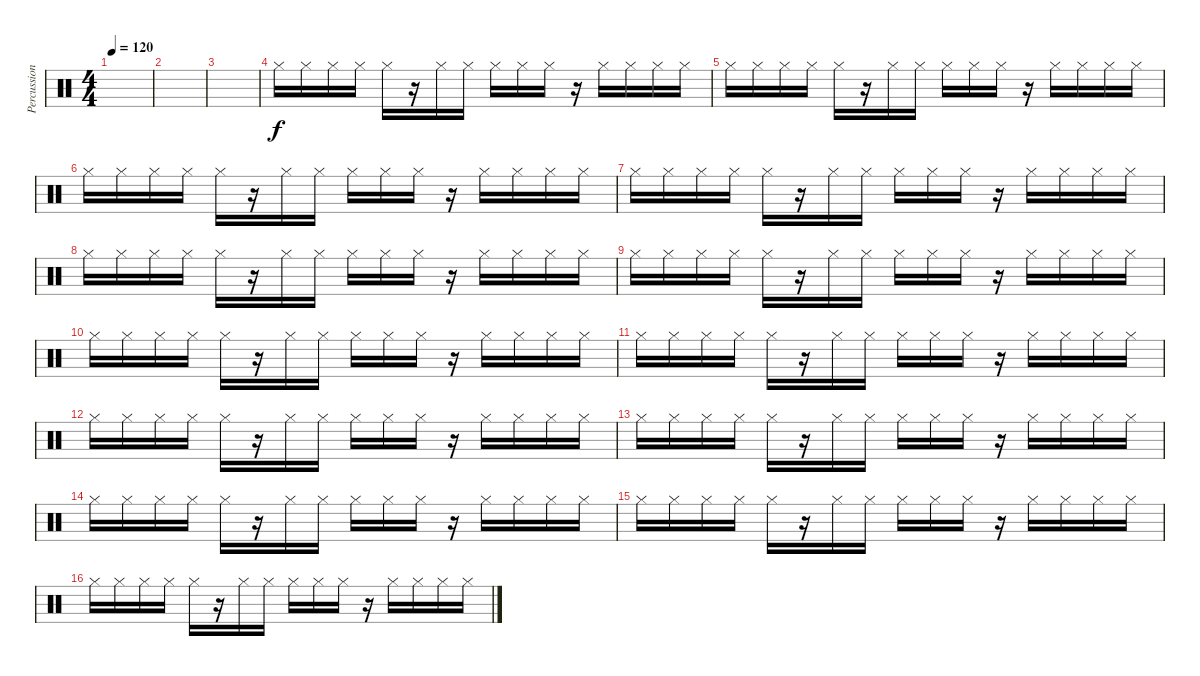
\track ("Percussions" "Percussion") {instrument percussion}
\staff {score}
\articulation defaults
\ts (4 4)
\tempo 120
\clef neutral
\ks c
|
|
|
"Hi-Hat (closed)".16 "Hi-Hat (closed)".16 "Hi-Hat (closed)".16 "Hi-Hat (closed)".16 "Hi-Hat (closed)".16 r.16 "Hi-Hat (closed)".16 "Hi-Hat (closed)".16 "Hi-Hat (closed)".16 "Hi-Hat (closed)".16 "Hi-Hat (closed)".16 r.16 "Hi-Hat (closed)".16 "Hi-Hat (closed)".16 "Hi-Hat (closed)".16 "Hi-Hat (closed)".16 |
"Hi-Hat (closed)".16 "Hi-Hat (closed)".16 "Hi-Hat (closed)".16 "Hi-Hat (closed)".16 "Hi-Hat (closed)".16 r.16 "Hi-Hat (closed)".16 "Hi-Hat (closed)".16 "Hi-Hat (closed)".16 "Hi-Hat (closed)".16 "Hi-Hat (closed)".16 r.16 "Hi-Hat (closed)".16 "Hi-Hat (closed)".16 "Hi-Hat (closed)".16 "Hi-Hat (closed)".16 |
"Hi-Hat (closed)".16 "Hi-Hat (closed)".16 "Hi-Hat (closed)".16 "Hi-Hat (closed)".16 "Hi-Hat (closed)".16 r.16 "Hi-Hat (closed)".16 "Hi-Hat (closed)".16 "Hi-Hat (closed)".16 "Hi-Hat (closed)".16 "Hi-Hat (closed)".16 r.16 "Hi-Hat (closed)".16 "Hi-Hat (closed)".16 "Hi-Hat (closed)".16 "Hi-Hat (closed)".16 |
"Hi-Hat (closed)".16 "Hi-Hat (closed)".16 "Hi-Hat (closed)".16 "Hi-Hat (closed)".16 "Hi-Hat (closed)".16 r.16 "Hi-Hat (closed)".16 "Hi-Hat (closed)".16 "Hi-Hat (closed)".16 "Hi-Hat (closed)".16 "Hi-Hat (closed)".16 r.16 "Hi-Hat (closed)".16 "Hi-Hat (closed)".16 "Hi-Hat (closed)".16 "Hi-Hat (closed)".16 |
"Hi-Hat (closed)".16 "Hi-Hat (closed)".16 "Hi-Hat (closed)".16 "Hi-Hat (closed)".16 "Hi-Hat (closed)".16 r.16 "Hi-Hat (closed)".16 "Hi-Hat (closed)".16 "Hi-Hat (closed)".16 "Hi-Hat (closed)".16 "Hi-Hat (closed)".16 r.16 "Hi-Hat (closed)".16 "Hi-Hat (closed)".16 "Hi-Hat (closed)".16 "Hi-Hat (closed)".16 |
"Hi-Hat (closed)".16 "Hi-Hat (closed)".16 "Hi-Hat (closed)".16 "Hi-Hat (closed)".16 "Hi-Hat (closed)".16 r.16 "Hi-Hat (closed)".16 "Hi-Hat (closed)".16 "Hi-Hat (closed)".16 "Hi-Hat (closed)".16 "Hi-Hat (closed)".16 r.16 "Hi-Hat (closed)".16 "Hi-Hat (closed)".16 "Hi-Hat (closed)".16 "Hi-Hat (closed)".16 |
"Hi-Hat (closed)".16 "Hi-Hat (closed)".16 "Hi-Hat (closed)".16 "Hi-Hat (closed)".16 "Hi-Hat (closed)".16 r.16 "Hi-Hat (closed)".16 "Hi-Hat (closed)".16 "Hi-Hat (closed)".16 "Hi-Hat (closed)".16 "Hi-Hat (closed)".16 r.16 "Hi-Hat (closed)".16 "Hi-Hat (closed)".16 "Hi-Hat (closed)".16 "Hi-Hat (closed)".16 |
"Hi-Hat (closed)".16 "Hi-Hat (closed)".16 "Hi-Hat (closed)".16 "Hi-Hat (closed)".16 "Hi-Hat (closed)".16 r.16 "Hi-Hat (closed)".16 "Hi-Hat (closed)".16 "Hi-Hat (closed)".16 "Hi-Hat (closed)".16 "Hi-Hat (closed)".16 r.16 "Hi-Hat (closed)".16 "Hi-Hat (closed)".16 "Hi-Hat (closed)".16 "Hi-Hat (closed)".16 |
"Hi-Hat (closed)".16 "Hi-Hat (closed)".16 "Hi-Hat (closed)".16 "Hi-Hat (closed)".16 "Hi-Hat (closed)".16 r.16 "Hi-Hat (closed)".16 "Hi-Hat (closed)".16 "Hi-Hat (closed)".16 "Hi-Hat (closed)".16 "Hi-Hat (closed)".16 r.16 "Hi-Hat (closed)".16 "Hi-Hat (closed)".16 "Hi-Hat (closed)".16 "Hi-Hat (closed)".16 |
"Hi-Hat (closed)".16 "Hi-Hat (closed)".16 "Hi-Hat (closed)".16 "Hi-Hat (closed)".16 "Hi-Hat (closed)".16 r.16 "Hi-Hat (closed)".16 "Hi-Hat (closed)".16 "Hi-Hat (closed)".16 "Hi-Hat (closed)".16 "Hi-Hat (closed)".16 r.16 "Hi-Hat (closed)".16 "Hi-Hat (closed)".16 "Hi-Hat (closed)".16 "Hi-Hat (closed)".16 |
"Hi-Hat (closed)".16 "Hi-Hat (closed)".16 "Hi-Hat (closed)".16 "Hi-Hat (closed)".16 "Hi-Hat (closed)".16 r.16 "Hi-Hat (closed)".16 "Hi-Hat (closed)".16 "Hi-Hat (closed)".16 "Hi-Hat (closed)".16 "Hi-Hat (closed)".16 r.16 "Hi-Hat (closed)".16 "Hi-Hat (closed)".16 "Hi-Hat (closed)".16 "Hi-Hat (closed)".16 |
"Hi-Hat (closed)".16 "Hi-Hat (closed)".16 "Hi-Hat (closed)".16 "Hi-Hat (closed)".16 "Hi-Hat (closed)".16 r.16 "Hi-Hat (closed)".16 "Hi-Hat (closed)".16 "Hi-Hat (closed)".16 "Hi-Hat (closed)".16 "Hi-Hat (closed)".16 r.16 "Hi-Hat (closed)".16 "Hi-Hat (closed)".16 "Hi-Hat (closed)".16 "Hi-Hat (closed)".16 |
"Hi-Hat (closed)".16 "Hi-Hat (closed)".16 "Hi-Hat (closed)".16 "Hi-Hat (closed)".16 "Hi-Hat (closed)".16 r.16 "Hi-Hat (closed)".16 "Hi-Hat (closed)".16 "Hi-Hat (closed)".16 "Hi-Hat (closed)".16 "Hi-Hat (closed)".16 r.16 "Hi-Hat (closed)".16 "Hi-Hat (closed)".16 "Hi-Hat (closed)".16 "Hi-Hat (closed)".16
